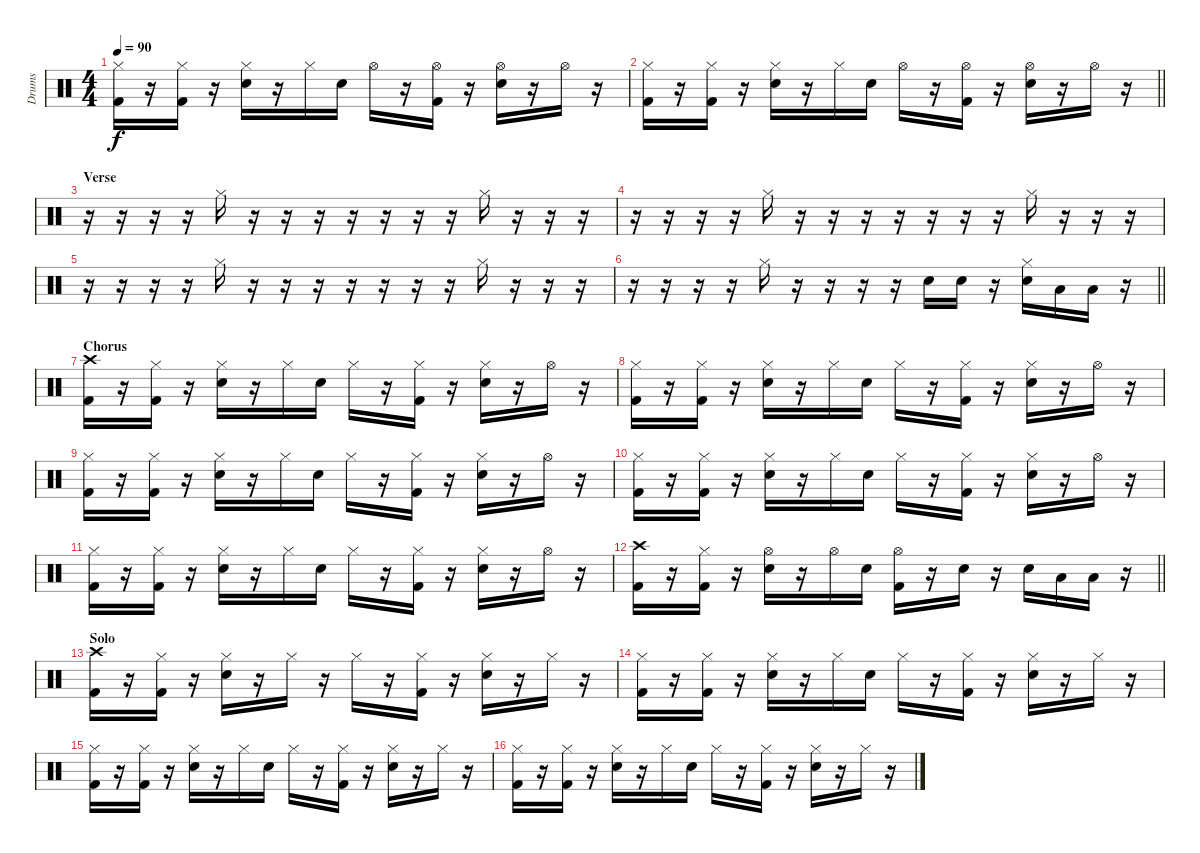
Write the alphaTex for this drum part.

\track ("Drums" "Drums") {instrument percussion}
\staff {score}
\articulation defaults
\ts (4 4)
\tempo 90
\clef neutral
\ks c
("Hi-Hat (closed)" "Kick (hit) 2").16{dy f} r.16 ("Hi-Hat (closed)" "Kick (hit) 2").16 r.16 ("Hi-Hat (closed)" "Snare (hit) 2").16 r.16 "Hi-Hat (closed)".16 "Snare (hit) 2".16 "Hi-Hat (open)".16 r.16 ("Hi-Hat (open)" "Kick (hit) 2").16 r.16 ("Hi-Hat (open)" "Snare (hit) 2").16 r.16 "Hi-Hat (open)".16 r.16 |
\barLineRight lightlight
("Hi-Hat (closed)" "Kick (hit) 2").16 r.16 ("Hi-Hat (closed)" "Kick (hit) 2").16 r.16 ("Hi-Hat (closed)" "Snare (hit) 2").16 r.16 "Hi-Hat (closed)".16 "Snare (hit) 2".16 "Hi-Hat (open)".16 r.16 ("Hi-Hat (open)" "Kick (hit) 2").16 r.16 ("Hi-Hat (open)" "Snare (hit) 2").16 r.16 "Hi-Hat (open)".16 r.16 |
\section ("" "Verse")
r.16 r.16 r.16 r.16 "Hi-Hat (closed)".16 r.16 r.16 r.16 r.16 r.16 r.16 r.16 "Hi-Hat (closed)".16 r.16 r.16 r.16 |
r.16 r.16 r.16 r.16 "Hi-Hat (closed)".16 r.16 r.16 r.16 r.16 r.16 r.16 r.16 "Hi-Hat (closed)".16 r.16 r.16 r.16 |
r.16 r.16 r.16 r.16 "Hi-Hat (closed)".16 r.16 r.16 r.16 r.16 r.16 r.16 r.16 "Hi-Hat (closed)".16 r.16 r.16 r.16 |
\barLineRight lightlight
r.16 r.16 r.16 r.16 "Hi-Hat (closed)".16 r.16 r.16 r.16 r.16 "Snare (hit) 2".16 "Snare (hit) 2".16 r.16 ("Hi-Hat (closed)" "Snare (hit) 2").16 "Low Tom (hit)".16 "Low Tom (hit)".16 r.16 |
\section ("" "Chorus")
("Crash high (hit)" "Kick (hit) 2").16 r.16 ("Hi-Hat (closed)" "Kick (hit) 2").16 r.16 ("Hi-Hat (closed)" "Snare (hit) 2").16 r.16 "Hi-Hat (closed)".16 "Snare (hit) 2".16 "Hi-Hat (closed)".16 r.16 ("Hi-Hat (closed)" "Kick (hit) 2").16 r.16 ("Hi-Hat (closed)" "Snare (hit) 2").16 r.16 "Hi-Hat (open)".16 r.16 |
("Hi-Hat (closed)" "Kick (hit) 2").16 r.16 ("Hi-Hat (closed)" "Kick (hit) 2").16 r.16 ("Hi-Hat (closed)" "Snare (hit) 2").16 r.16 "Hi-Hat (closed)".16 "Snare (hit) 2".16 "Hi-Hat (closed)".16 r.16 ("Hi-Hat (closed)" "Kick (hit) 2").16 r.16 ("Hi-Hat (closed)" "Snare (hit) 2").16 r.16 "Hi-Hat (open)".16 r.16 |
("Hi-Hat (closed)" "Kick (hit) 2").16 r.16 ("Hi-Hat (closed)" "Kick (hit) 2").16 r.16 ("Hi-Hat (closed)" "Snare (hit) 2").16 r.16 "Hi-Hat (closed)".16 "Snare (hit) 2".16 "Hi-Hat (closed)".16 r.16 ("Hi-Hat (closed)" "Kick (hit) 2").16 r.16 ("Hi-Hat (closed)" "Snare (hit) 2").16 r.16 "Hi-Hat (open)".16 r.16 |
("Hi-Hat (closed)" "Kick (hit) 2").16 r.16 ("Hi-Hat (closed)" "Kick (hit) 2").16 r.16 ("Hi-Hat (closed)" "Snare (hit) 2").16 r.16 "Hi-Hat (closed)".16 "Snare (hit) 2".16 "Hi-Hat (closed)".16 r.16 ("Hi-Hat (closed)" "Kick (hit) 2").16 r.16 ("Hi-Hat (closed)" "Snare (hit) 2").16 r.16 "Hi-Hat (open)".16 r.16 |
("Hi-Hat (closed)" "Kick (hit) 2").16 r.16 ("Hi-Hat (closed)" "Kick (hit) 2").16 r.16 ("Hi-Hat (closed)" "Snare (hit) 2").16 r.16 "Hi-Hat (closed)".16 "Snare (hit) 2".16 "Hi-Hat (closed)".16 r.16 ("Hi-Hat (closed)" "Kick (hit) 2").16 r.16 ("Hi-Hat (closed)" "Snare (hit) 2").16 r.16 "Hi-Hat (open)".16 r.16 |
\barLineRight lightlight
("Crash high (hit)" "Kick (hit) 2").16 r.16 ("Hi-Hat (closed)" "Kick (hit) 2").16 r.16 ("Hi-Hat (open)" "Snare (hit) 2").16 r.16 "Hi-Hat (open)".16 "Snare (hit) 2".16 ("Hi-Hat (open)" "Kick (hit) 2").16 r.16 "Snare (hit) 2".16 r.16 "Snare (hit) 2".16 "Low Tom (hit)".16 "Low Tom (hit)".16 r.16 |
\section ("" "Solo")
("Crash high (hit)" "Kick (hit) 2").16 r.16 ("Hi-Hat (closed)" "Kick (hit) 2").16 r.16 ("Hi-Hat (closed)" "Snare (hit) 2").16 r.16 "Hi-Hat (closed)".16 r.16 "Hi-Hat (closed)".16 r.16 ("Hi-Hat (closed)" "Kick (hit) 2").16 r.16 ("Hi-Hat (closed)" "Snare (hit) 2").16 r.16 "Hi-Hat (closed)".16 r.16 |
("Hi-Hat (closed)" "Kick (hit) 2").16 r.16 ("Hi-Hat (closed)" "Kick (hit) 2").16 r.16 ("Hi-Hat (closed)" "Snare (hit) 2").16 r.16 "Hi-Hat (closed)".16 "Snare (hit) 2".16 "Hi-Hat (closed)".16 r.16 ("Hi-Hat (closed)" "Kick (hit) 2").16 r.16 ("Hi-Hat (closed)" "Snare (hit) 2").16 r.16 "Hi-Hat (closed)".16 r.16 |
("Hi-Hat (closed)" "Kick (hit) 2").16 r.16 ("Hi-Hat (closed)" "Kick (hit) 2").16 r.16 ("Hi-Hat (closed)" "Snare (hit) 2").16 r.16 "Hi-Hat (closed)".16 "Snare (hit) 2".16 "Hi-Hat (closed)".16 r.16 ("Hi-Hat (closed)" "Kick (hit) 2").16 r.16 ("Hi-Hat (closed)" "Snare (hit) 2").16 r.16 "Hi-Hat (closed)".16 r.16 |
("Hi-Hat (closed)" "Kick (hit) 2").16 r.16 ("Hi-Hat (closed)" "Kick (hit) 2").16 r.16 ("Hi-Hat (closed)" "Snare (hit) 2").16 r.16 "Hi-Hat (closed)".16 "Snare (hit) 2".16 "Hi-Hat (closed)".16 r.16 ("Hi-Hat (closed)" "Kick (hit) 2").16 r.16 ("Hi-Hat (closed)" "Snare (hit) 2").16 r.16 "Hi-Hat (closed)".16 r.16
